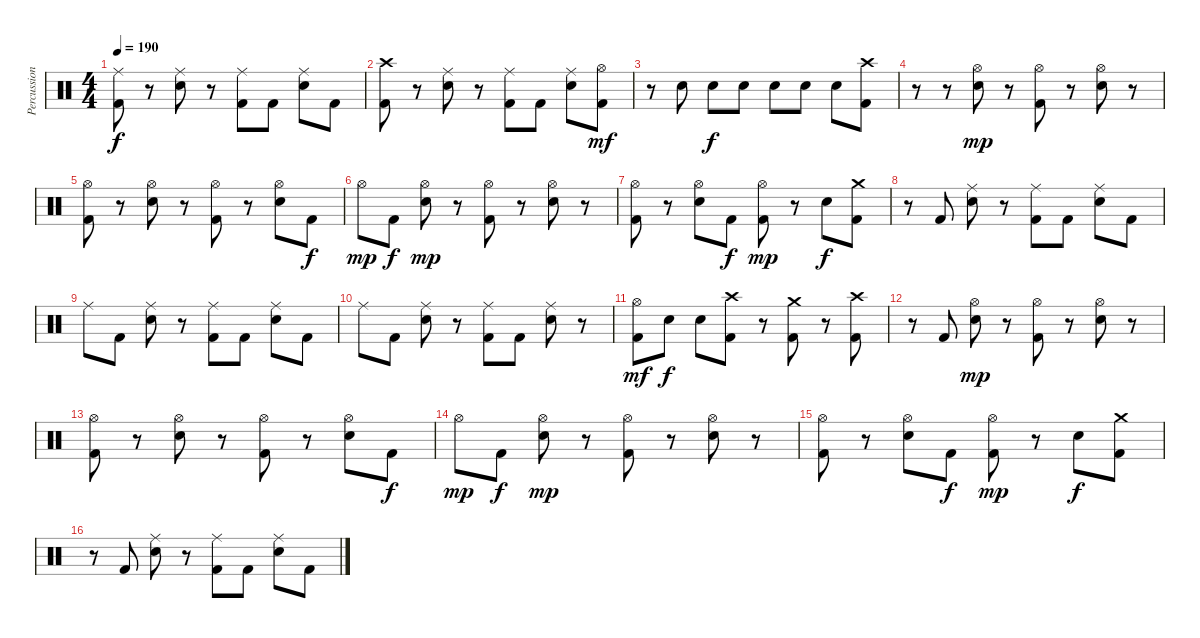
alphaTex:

\track ("Percussion" "Percussion") {instrument percussion}
\staff {score}
\articulation defaults
\ts (4 4)
\tempo 190
\clef neutral
\ks c
("Ride (middle)" "Kick (hit) 2").8{dy f} r.8 ("Ride (middle)" "Snare (hit) 2").8 r.8 ("Ride (middle)" "Kick (hit) 2").8 "Kick (hit) 2".8 ("Ride (middle)" "Snare (hit) 2").8 "Kick (hit) 2".8 |
("Crash high (hit)" "Kick (hit) 2").8 r.8 ("Ride (middle)" "Snare (hit) 2").8 r.8 ("Ride (middle)" "Kick (hit) 2").8 "Kick (hit) 2".8 ("Ride (middle)" "Snare (hit) 2").8 ("Hi-Hat (open)" "Kick (hit) 2").8{dy mf} |
r.8 "Snare (hit) 2".8 "Snare (hit) 2".8{dy f} "Snare (hit) 2".8 "Snare (hit) 2".8 "Snare (hit) 2".8 "Snare (hit) 2".8 ("Crash high (hit)" "Kick (hit) 2").8 |
r.8 r.8 ("Hi-Hat (open)" "Snare (hit) 2").8{dy mp} r.8 ("Hi-Hat (open)" "Kick (hit) 2").8 r.8 ("Hi-Hat (open)" "Snare (hit) 2").8 r.8 |
("Hi-Hat (open)" "Kick (hit) 2").8 r.8 ("Hi-Hat (open)" "Snare (hit) 2").8 r.8 ("Hi-Hat (open)" "Kick (hit) 2").8 r.8 ("Hi-Hat (open)" "Snare (hit) 2").8 "Kick (hit) 2".8{dy f} |
"Hi-Hat (open)".8{dy mp} "Kick (hit) 2".8{dy f} ("Hi-Hat (open)" "Snare (hit) 2").8{dy mp} r.8 ("Hi-Hat (open)" "Kick (hit) 2").8 r.8 ("Hi-Hat (open)" "Snare (hit) 2").8 r.8 |
("Hi-Hat (open)" "Kick (hit) 2").8 r.8 ("Hi-Hat (open)" "Snare (hit) 2").8 "Kick (hit) 2".8{dy f} ("Hi-Hat (open)" "Kick (hit) 2").8{dy mp} r.8 "Snare (hit) 2".8{dy f} ("Crash medium (hit)" "Kick (hit) 2").8 |
r.8 "Kick (hit) 2".8 ("Ride (middle)" "Snare (hit) 2").8 r.8 ("Ride (middle)" "Kick (hit) 2").8 "Kick (hit) 2".8 ("Ride (middle)" "Snare (hit) 2").8 "Kick (hit) 2".8 |
"Ride (middle)".8 "Kick (hit) 2".8 ("Ride (middle)" "Snare (hit) 2").8 r.8 ("Ride (middle)" "Kick (hit) 2").8 "Kick (hit) 2".8 ("Ride (middle)" "Snare (hit) 2").8 "Kick (hit) 2".8 |
"Ride (middle)".8 "Kick (hit) 2".8 ("Ride (middle)" "Snare (hit) 2").8 r.8 ("Ride (middle)" "Kick (hit) 2").8 "Kick (hit) 2".8 ("Ride (middle)" "Snare (hit) 2").8 r.8 |
("Hi-Hat (open)" "Kick (hit) 2").8{dy mf} "Snare (hit) 2".8{dy f} "Snare (hit) 2".8 ("Crash high (hit)" "Kick (hit) 2").8 r.8 ("Crash medium (hit)" "Kick (hit) 2").8 r.8 ("Crash high (hit)" "Kick (hit) 2").8 |
r.8 "Kick (hit) 2".8 ("Hi-Hat (open)" "Snare (hit) 2").8{dy mp} r.8 ("Hi-Hat (open)" "Kick (hit) 2").8 r.8 ("Hi-Hat (open)" "Snare (hit) 2").8 r.8 |
("Hi-Hat (open)" "Kick (hit) 2").8 r.8 ("Hi-Hat (open)" "Snare (hit) 2").8 r.8 ("Hi-Hat (open)" "Kick (hit) 2").8 r.8 ("Hi-Hat (open)" "Snare (hit) 2").8 "Kick (hit) 2".8{dy f} |
"Hi-Hat (open)".8{dy mp} "Kick (hit) 2".8{dy f} ("Hi-Hat (open)" "Snare (hit) 2").8{dy mp} r.8 ("Hi-Hat (open)" "Kick (hit) 2").8 r.8 ("Hi-Hat (open)" "Snare (hit) 2").8 r.8 |
("Hi-Hat (open)" "Kick (hit) 2").8 r.8 ("Hi-Hat (open)" "Snare (hit) 2").8 "Kick (hit) 2".8{dy f} ("Hi-Hat (open)" "Kick (hit) 2").8{dy mp} r.8 "Snare (hit) 2".8{dy f} ("Crash medium (hit)" "Kick (hit) 2").8 |
r.8 "Kick (hit) 2".8 ("Ride (middle)" "Snare (hit) 2").8 r.8 ("Ride (middle)" "Kick (hit) 2").8 "Kick (hit) 2".8 ("Ride (middle)" "Snare (hit) 2").8 "Kick (hit) 2".8
